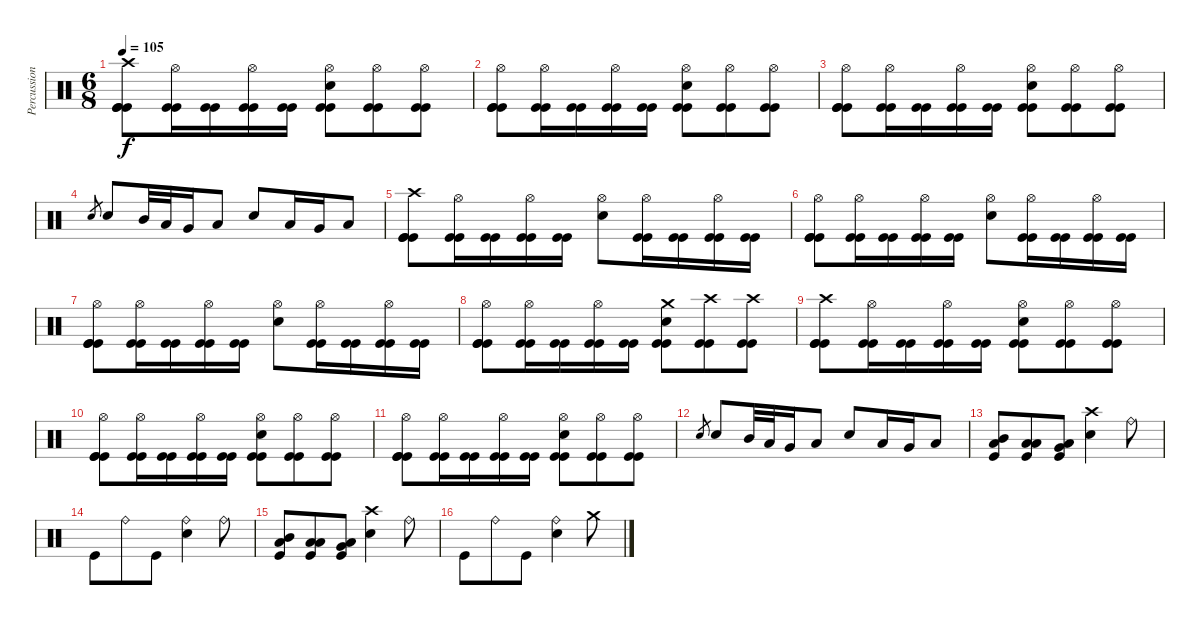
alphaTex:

\track ("Percussions" "Percussion") {instrument percussion}
\staff {score}
\articulation defaults
\ts (6 8)
\tempo 105
\clef neutral
\ks c
("Kick (hit)" "Kick (hit)" "Kick (hit)" "Crash high (hit)").8{dy f} ("Kick (hit)" "Kick (hit)" "Hi-Hat (open)").16 ("Kick (hit)" "Kick (hit)").16 ("Kick (hit)" "Kick (hit)" "Hi-Hat (open)").16 ("Kick (hit)" "Kick (hit)").16 ("Snare (hit) 2" "Kick (hit)" "Kick (hit)" "Hi-Hat (open)").8 ("Kick (hit)" "Kick (hit)" "Hi-Hat (open)").8 ("Kick (hit)" "Kick (hit)" "Hi-Hat (open)").8 |
("Kick (hit)" "Kick (hit)" "Kick (hit)" "Hi-Hat (open)").8 ("Kick (hit)" "Kick (hit)" "Hi-Hat (open)").16 ("Kick (hit)" "Kick (hit)").16 ("Kick (hit)" "Kick (hit)" "Hi-Hat (open)").16 ("Kick (hit)" "Kick (hit)").16 ("Snare (hit) 2" "Kick (hit)" "Kick (hit)" "Hi-Hat (open)").8 ("Kick (hit)" "Kick (hit)" "Hi-Hat (open)").8 ("Kick (hit)" "Kick (hit)" "Hi-Hat (open)").8 |
("Kick (hit)" "Kick (hit)" "Kick (hit)" "Hi-Hat (open)").8 ("Kick (hit)" "Kick (hit)" "Hi-Hat (open)").16 ("Kick (hit)" "Kick (hit)").16 ("Kick (hit)" "Kick (hit)" "Hi-Hat (open)").16 ("Kick (hit)" "Kick (hit)").16 ("Snare (hit) 2" "Kick (hit)" "Kick (hit)" "Hi-Hat (open)").8 ("Kick (hit)" "Kick (hit)" "Hi-Hat (open)").8 ("Kick (hit)" "Kick (hit)" "Hi-Hat (open)").8 |
"Snare (hit) 2".8{gr} "Snare (hit) 2".8 "Mid Tom (hit)".32 "Low Tom (hit)".32 "Very Low Tom (hit)".16 "Low Floor Tom (hit)".8 "Snare (hit) 2".8 "Low Tom (hit)".16 "Very Low Tom (hit)".16 "Low Floor Tom (hit)".8 |
("Kick (hit)" "Kick (hit)" "Kick (hit)" "Crash high (hit)").8 ("Kick (hit)" "Kick (hit)" "Hi-Hat (open)").16 ("Kick (hit)" "Kick (hit)").16 ("Kick (hit)" "Kick (hit)" "Hi-Hat (open)").16 ("Kick (hit)" "Kick (hit)").16 ("Snare (hit) 2" "Hi-Hat (open)").8 ("Kick (hit)" "Kick (hit)" "Hi-Hat (open)").16 ("Kick (hit)" "Kick (hit)").16 ("Kick (hit)" "Kick (hit)" "Hi-Hat (open)").16 ("Kick (hit)" "Kick (hit)").16 |
("Kick (hit)" "Kick (hit)" "Kick (hit)" "Hi-Hat (open)").8 ("Kick (hit)" "Kick (hit)" "Hi-Hat (open)").16 ("Kick (hit)" "Kick (hit)").16 ("Kick (hit)" "Kick (hit)" "Hi-Hat (open)").16 ("Kick (hit)" "Kick (hit)").16 ("Snare (hit) 2" "Hi-Hat (open)").8 ("Kick (hit)" "Kick (hit)" "Hi-Hat (open)").16 ("Kick (hit)" "Kick (hit)").16 ("Kick (hit)" "Kick (hit)" "Hi-Hat (open)").16 ("Kick (hit)" "Kick (hit)").16 |
("Kick (hit)" "Kick (hit)" "Kick (hit)" "Hi-Hat (open)").8 ("Kick (hit)" "Kick (hit)" "Hi-Hat (open)").16 ("Kick (hit)" "Kick (hit)").16 ("Kick (hit)" "Kick (hit)" "Hi-Hat (open)").16 ("Kick (hit)" "Kick (hit)").16 ("Snare (hit) 2" "Hi-Hat (open)").8 ("Kick (hit)" "Kick (hit)" "Hi-Hat (open)").16 ("Kick (hit)" "Kick (hit)").16 ("Kick (hit)" "Kick (hit)" "Hi-Hat (open)").16 ("Kick (hit)" "Kick (hit)").16 |
("Kick (hit)" "Kick (hit)" "Kick (hit)" "Hi-Hat (open)").8 ("Kick (hit)" "Kick (hit)" "Hi-Hat (open)").16 ("Kick (hit)" "Kick (hit)").16 ("Kick (hit)" "Kick (hit)" "Hi-Hat (open)").16 ("Kick (hit)" "Kick (hit)").16 ("Snare (hit) 2" "Kick (hit)" "Kick (hit)" "Crash medium (hit)").8 ("Kick (hit)" "Kick (hit)" "Crash high (hit)").8 ("Kick (hit)" "Kick (hit)" "Crash high (hit)").8 |
("Kick (hit)" "Kick (hit)" "Kick (hit)" "Crash high (hit)").8 ("Kick (hit)" "Kick (hit)" "Hi-Hat (open)").16 ("Kick (hit)" "Kick (hit)").16 ("Kick (hit)" "Kick (hit)" "Hi-Hat (open)").16 ("Kick (hit)" "Kick (hit)").16 ("Snare (hit) 2" "Kick (hit)" "Kick (hit)" "Hi-Hat (open)").8 ("Kick (hit)" "Kick (hit)" "Hi-Hat (open)").8 ("Kick (hit)" "Kick (hit)" "Hi-Hat (open)").8 |
("Kick (hit)" "Kick (hit)" "Kick (hit)" "Hi-Hat (open)").8 ("Kick (hit)" "Kick (hit)" "Hi-Hat (open)").16 ("Kick (hit)" "Kick (hit)").16 ("Kick (hit)" "Kick (hit)" "Hi-Hat (open)").16 ("Kick (hit)" "Kick (hit)").16 ("Snare (hit) 2" "Kick (hit)" "Kick (hit)" "Hi-Hat (open)").8 ("Kick (hit)" "Kick (hit)" "Hi-Hat (open)").8 ("Kick (hit)" "Kick (hit)" "Hi-Hat (open)").8 |
("Kick (hit)" "Kick (hit)" "Kick (hit)" "Hi-Hat (open)").8 ("Kick (hit)" "Kick (hit)" "Hi-Hat (open)").16 ("Kick (hit)" "Kick (hit)").16 ("Kick (hit)" "Kick (hit)" "Hi-Hat (open)").16 ("Kick (hit)" "Kick (hit)").16 ("Snare (hit) 2" "Kick (hit)" "Kick (hit)" "Hi-Hat (open)").8 ("Kick (hit)" "Kick (hit)" "Hi-Hat (open)").8 ("Kick (hit)" "Kick (hit)" "Hi-Hat (open)").8 |
"Snare (hit) 2".8{gr} "Snare (hit) 2".8 "Mid Tom (hit)".32 "Low Tom (hit)".32 "Very Low Tom (hit)".16 "Low Floor Tom (hit)".8 "Snare (hit) 2".8 "Low Tom (hit)".16 "Very Low Tom (hit)".16 "Low Floor Tom (hit)".8 |
("Low Floor Tom (hit)" "Kick (hit)" "Mid Tom (hit)").8 ("Low Floor Tom (hit)" "Kick (hit)" "Low Tom (hit)").8 ("Low Floor Tom (hit)" "Kick (hit)" "Very Low Tom (hit)").8 ("Crash high (hit)" "Snare (hit) 2").4 "Ride (bell)".8 |
"Kick (hit)".8 "Ride (bell)".8 "Kick (hit)".8 ("Snare (hit) 2" "Ride (bell)").4 "Ride (bell)".8 |
("Low Floor Tom (hit)" "Kick (hit)" "Mid Tom (hit)").8 ("Low Floor Tom (hit)" "Kick (hit)" "Low Tom (hit)").8 ("Low Floor Tom (hit)" "Kick (hit)" "Very Low Tom (hit)").8 ("Crash high (hit)" "Snare (hit) 2").4 "Ride (bell)".8 |
"Kick (hit)".8 "Ride (bell)".8 "Kick (hit)".8 ("Snare (hit) 2" "Ride (bell)").4 "Crash medium (hit)".8
